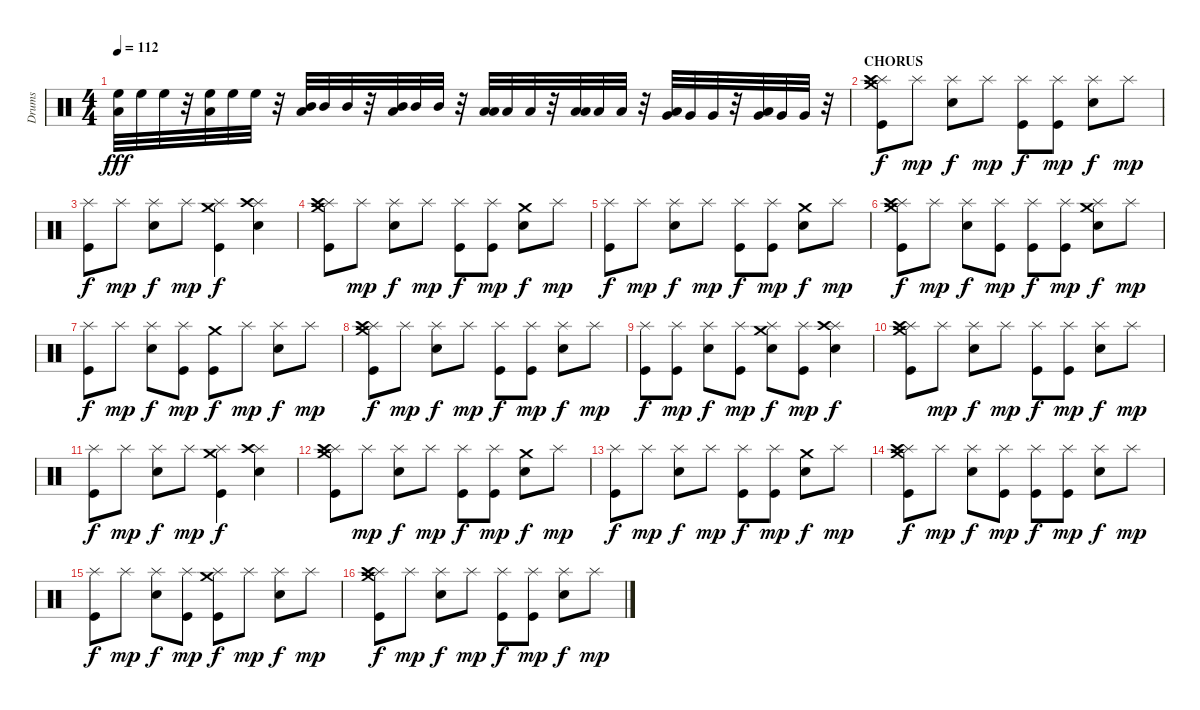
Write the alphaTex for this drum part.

\track ("Drums" "Drums") {instrument percussion}
\staff {score}
\articulation defaults
\ts (4 4)
\tempo 112
\clef neutral
\ks c
("Low Floor Tom (hit)" "High Floor Tom (hit)").32{dy fff} "High Floor Tom (hit)".32 "High Floor Tom (hit)".32 r.32 ("Low Floor Tom (hit)" "High Floor Tom (hit)").32 "High Floor Tom (hit)".32 "High Floor Tom (hit)".32 r.32 ("Low Floor Tom (hit)" "Mid Tom (hit)").32 "Mid Tom (hit)".32 "Mid Tom (hit)".32 r.32 ("Low Floor Tom (hit)" "Mid Tom (hit)").32 "Mid Tom (hit)".32 "Mid Tom (hit)".32 r.32 ("Low Floor Tom (hit)" "Low Tom (hit)").32 "Low Tom (hit)".32 "Low Tom (hit)".32 r.32 ("Low Floor Tom (hit)" "Low Tom (hit)").32 "Low Tom (hit)".32 "Low Tom (hit)".32 r.32 ("Low Floor Tom (hit)" "Very Low Tom (hit)").32 "Very Low Tom (hit)".32 "Very Low Tom (hit)".32 r.32 ("Low Floor Tom (hit)" "Very Low Tom (hit)").32 "Very Low Tom (hit)".32 "Very Low Tom (hit)".32 r.32 |
\section ("" "CHORUS")
("Crash medium (hit)" "Splash (hit)" "Crash high (hit)" "Kick (hit)").8{dy f} "Splash (hit)".8{dy mp} ("Splash (hit)" "Electric Snare (hit)").8{dy f} "Splash (hit)".8{dy mp} ("Splash (hit)" "Kick (hit)").8{dy f} ("Splash (hit)" "Kick (hit)").8{dy mp} ("Splash (hit)" "Electric Snare (hit)").8{dy f} "Splash (hit)".8{dy mp} |
("Splash (hit)" "Kick (hit)").8{dy f} "Splash (hit)".8{dy mp} ("Splash (hit)" "Electric Snare (hit)").8{dy f} "Splash (hit)".8{dy mp} ("Crash medium (hit)" "Splash (hit)" "Kick (hit)").4{dy f} ("Splash (hit)" "Crash high (hit)" "Electric Snare (hit)").4 |
("Crash medium (hit)" "Splash (hit)" "Crash high (hit)" "Kick (hit)").8 "Splash (hit)".8{dy mp} ("Splash (hit)" "Electric Snare (hit)").8{dy f} "Splash (hit)".8{dy mp} ("Splash (hit)" "Kick (hit)").8{dy f} ("Splash (hit)" "Kick (hit)").8{dy mp} ("Crash medium (hit)" "Electric Snare (hit)").8{dy f} "Splash (hit)".8{dy mp} |
("Splash (hit)" "Kick (hit)").8{dy f} "Splash (hit)".8{dy mp} ("Splash (hit)" "Electric Snare (hit)").8{dy f} "Splash (hit)".8{dy mp} ("Splash (hit)" "Kick (hit)").8{dy f} ("Splash (hit)" "Kick (hit)").8{dy mp} ("Crash medium (hit)" "Electric Snare (hit)").8{dy f} "Splash (hit)".8{dy mp} |
("Crash medium (hit)" "Splash (hit)" "Crash high (hit)" "Kick (hit)").8{dy f} "Splash (hit)".8{dy mp} ("Splash (hit)" "Electric Snare (hit)").8{dy f} ("Splash (hit)" "Kick (hit)").8{dy mp} ("Splash (hit)" "Kick (hit)").8{dy f} ("Splash (hit)" "Kick (hit)").8{dy mp} ("Crash medium (hit)" "Splash (hit)" "Electric Snare (hit)").8{dy f} "Splash (hit)".8{dy mp} |
("Splash (hit)" "Kick (hit)").8{dy f} "Splash (hit)".8{dy mp} ("Splash (hit)" "Electric Snare (hit)").8{dy f} ("Splash (hit)" "Kick (hit)").8{dy mp} ("Crash medium (hit)" "Kick (hit)").8{dy f} "Splash (hit)".8{dy mp} ("Splash (hit)" "Electric Snare (hit)").8{dy f} "Splash (hit)".8{dy mp} |
("Crash medium (hit)" "Splash (hit)" "Crash high (hit)" "Kick (hit)").8{dy f} "Splash (hit)".8{dy mp} ("Splash (hit)" "Electric Snare (hit)").8{dy f} "Splash (hit)".8{dy mp} ("Splash (hit)" "Kick (hit)").8{dy f} ("Splash (hit)" "Kick (hit)").8{dy mp} ("Splash (hit)" "Electric Snare (hit)").8{dy f} "Splash (hit)".8{dy mp} |
("Splash (hit)" "Kick (hit)").8{dy f} ("Splash (hit)" "Kick (hit)").8{dy mp} ("Splash (hit)" "Electric Snare (hit)").8{dy f} ("Splash (hit)" "Kick (hit)").8{dy mp} ("Crash medium (hit)" "Splash (hit)" "Electric Snare (hit)").8{dy f} ("Splash (hit)" "Kick (hit)").8{dy mp} ("Splash (hit)" "Crash high (hit)" "Electric Snare (hit)").4{dy f} |
("Crash medium (hit)" "Splash (hit)" "Crash high (hit)" "Kick (hit)").8 "Splash (hit)".8{dy mp} ("Splash (hit)" "Electric Snare (hit)").8{dy f} "Splash (hit)".8{dy mp} ("Splash (hit)" "Kick (hit)").8{dy f} ("Splash (hit)" "Kick (hit)").8{dy mp} ("Splash (hit)" "Electric Snare (hit)").8{dy f} "Splash (hit)".8{dy mp} |
("Splash (hit)" "Kick (hit)").8{dy f} "Splash (hit)".8{dy mp} ("Splash (hit)" "Electric Snare (hit)").8{dy f} "Splash (hit)".8{dy mp} ("Crash medium (hit)" "Splash (hit)" "Kick (hit)").4{dy f} ("Splash (hit)" "Crash high (hit)" "Electric Snare (hit)").4 |
("Crash medium (hit)" "Splash (hit)" "Crash high (hit)" "Kick (hit)").8 "Splash (hit)".8{dy mp} ("Splash (hit)" "Electric Snare (hit)").8{dy f} "Splash (hit)".8{dy mp} ("Splash (hit)" "Kick (hit)").8{dy f} ("Splash (hit)" "Kick (hit)").8{dy mp} ("Crash medium (hit)" "Electric Snare (hit)").8{dy f} "Splash (hit)".8{dy mp} |
("Splash (hit)" "Kick (hit)").8{dy f} "Splash (hit)".8{dy mp} ("Splash (hit)" "Electric Snare (hit)").8{dy f} "Splash (hit)".8{dy mp} ("Splash (hit)" "Kick (hit)").8{dy f} ("Splash (hit)" "Kick (hit)").8{dy mp} ("Crash medium (hit)" "Electric Snare (hit)").8{dy f} "Splash (hit)".8{dy mp} |
("Crash medium (hit)" "Splash (hit)" "Crash high (hit)" "Kick (hit)").8{dy f} "Splash (hit)".8{dy mp} ("Splash (hit)" "Electric Snare (hit)").8{dy f} ("Splash (hit)" "Kick (hit)").8{dy mp} ("Splash (hit)" "Kick (hit)").8{dy f} ("Splash (hit)" "Kick (hit)").8{dy mp} ("Splash (hit)" "Electric Snare (hit)").8{dy f} "Splash (hit)".8{dy mp} |
("Splash (hit)" "Kick (hit)").8{dy f} "Splash (hit)".8{dy mp} ("Splash (hit)" "Electric Snare (hit)").8{dy f} ("Splash (hit)" "Kick (hit)").8{dy mp} ("Crash medium (hit)" "Splash (hit)" "Kick (hit)").8{dy f} "Splash (hit)".8{dy mp} ("Splash (hit)" "Electric Snare (hit)").8{dy f} "Splash (hit)".8{dy mp} |
("Crash medium (hit)" "Splash (hit)" "Crash high (hit)" "Kick (hit)").8{dy f} "Splash (hit)".8{dy mp} ("Splash (hit)" "Electric Snare (hit)").8{dy f} "Splash (hit)".8{dy mp} ("Splash (hit)" "Kick (hit)").8{dy f} ("Splash (hit)" "Kick (hit)").8{dy mp} ("Splash (hit)" "Electric Snare (hit)").8{dy f} "Splash (hit)".8{dy mp}
